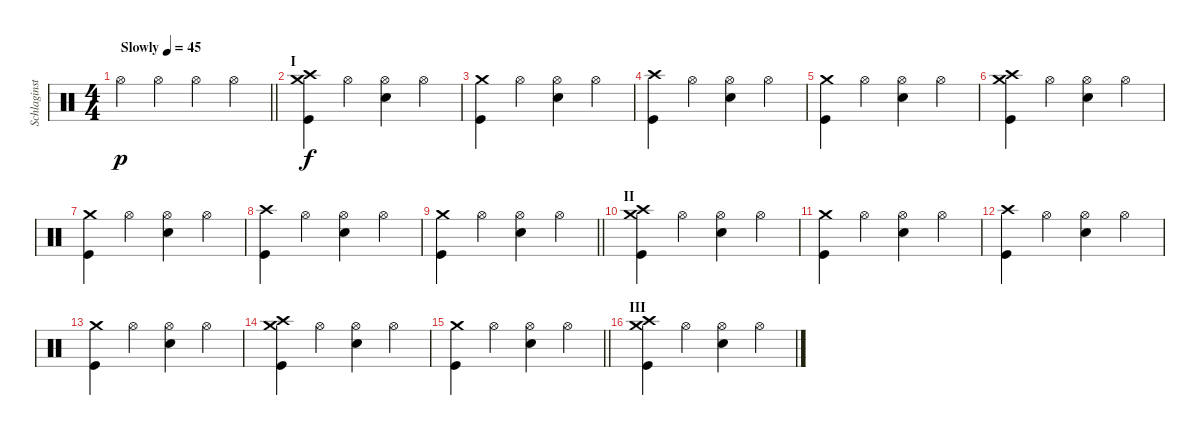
\track ("Schlaginstrumente - Auswahl" "Schlaginst") {instrument percussion}
\staff {score}
\articulation defaults
\ts (4 4)
\tempo (45 "Slowly")
\clef neutral
\barLineRight lightlight
\ks c "Hi-Hat (open)".4{dy p} "Hi-Hat (open)".4 "Hi-Hat (open)".4 "Hi-Hat (open)".4
|
\section ("" "I")
("Crash medium (hit)" "Crash high (hit)" "Kick (hit)").4{dy f} "Hi-Hat (open)".4 ("Hi-Hat (open)" "Snare (hit) 2").4 "Hi-Hat (open)".4 |
("Crash medium (hit)" "Kick (hit)").4 "Hi-Hat (open)".4 ("Hi-Hat (open)" "Snare (hit) 2").4 "Hi-Hat (open)".4 |
("Crash high (hit)" "Kick (hit)").4 "Hi-Hat (open)".4 ("Hi-Hat (open)" "Snare (hit) 2").4 "Hi-Hat (open)".4 |
("Crash medium (hit)" "Kick (hit)").4 "Hi-Hat (open)".4 ("Hi-Hat (open)" "Snare (hit) 2").4 "Hi-Hat (open)".4 |
("Crash medium (hit)" "Crash high (hit)" "Kick (hit)").4 "Hi-Hat (open)".4 ("Hi-Hat (open)" "Snare (hit) 2").4 "Hi-Hat (open)".4 |
("Crash medium (hit)" "Kick (hit)").4 "Hi-Hat (open)".4 ("Hi-Hat (open)" "Snare (hit) 2").4 "Hi-Hat (open)".4 |
("Crash high (hit)" "Kick (hit)").4 "Hi-Hat (open)".4 ("Hi-Hat (open)" "Snare (hit) 2").4 "Hi-Hat (open)".4 |
\barLineRight lightlight
("Crash medium (hit)" "Kick (hit)").4 "Hi-Hat (open)".4 ("Hi-Hat (open)" "Snare (hit) 2").4 "Hi-Hat (open)".4 |
\section ("" "II")
("Crash medium (hit)" "Crash high (hit)" "Kick (hit)").4 "Hi-Hat (open)".4 ("Hi-Hat (open)" "Snare (hit) 2").4 "Hi-Hat (open)".4 |
("Crash medium (hit)" "Kick (hit)").4 "Hi-Hat (open)".4 ("Hi-Hat (open)" "Snare (hit) 2").4 "Hi-Hat (open)".4 |
("Crash high (hit)" "Kick (hit)").4 "Hi-Hat (open)".4 ("Hi-Hat (open)" "Snare (hit) 2").4 "Hi-Hat (open)".4 |
("Crash medium (hit)" "Kick (hit)").4 "Hi-Hat (open)".4 ("Hi-Hat (open)" "Snare (hit) 2").4 "Hi-Hat (open)".4 |
("Crash medium (hit)" "Crash high (hit)" "Kick (hit)").4 "Hi-Hat (open)".4 ("Hi-Hat (open)" "Snare (hit) 2").4 "Hi-Hat (open)".4 |
\barLineRight lightlight
("Crash medium (hit)" "Kick (hit)").4 "Hi-Hat (open)".4 ("Hi-Hat (open)" "Snare (hit) 2").4 "Hi-Hat (open)".4 |
\section ("" "III")
("Crash medium (hit)" "Crash high (hit)" "Kick (hit)").4 "Hi-Hat (open)".4 ("Hi-Hat (open)" "Snare (hit) 2").4 "Hi-Hat (open)".4
